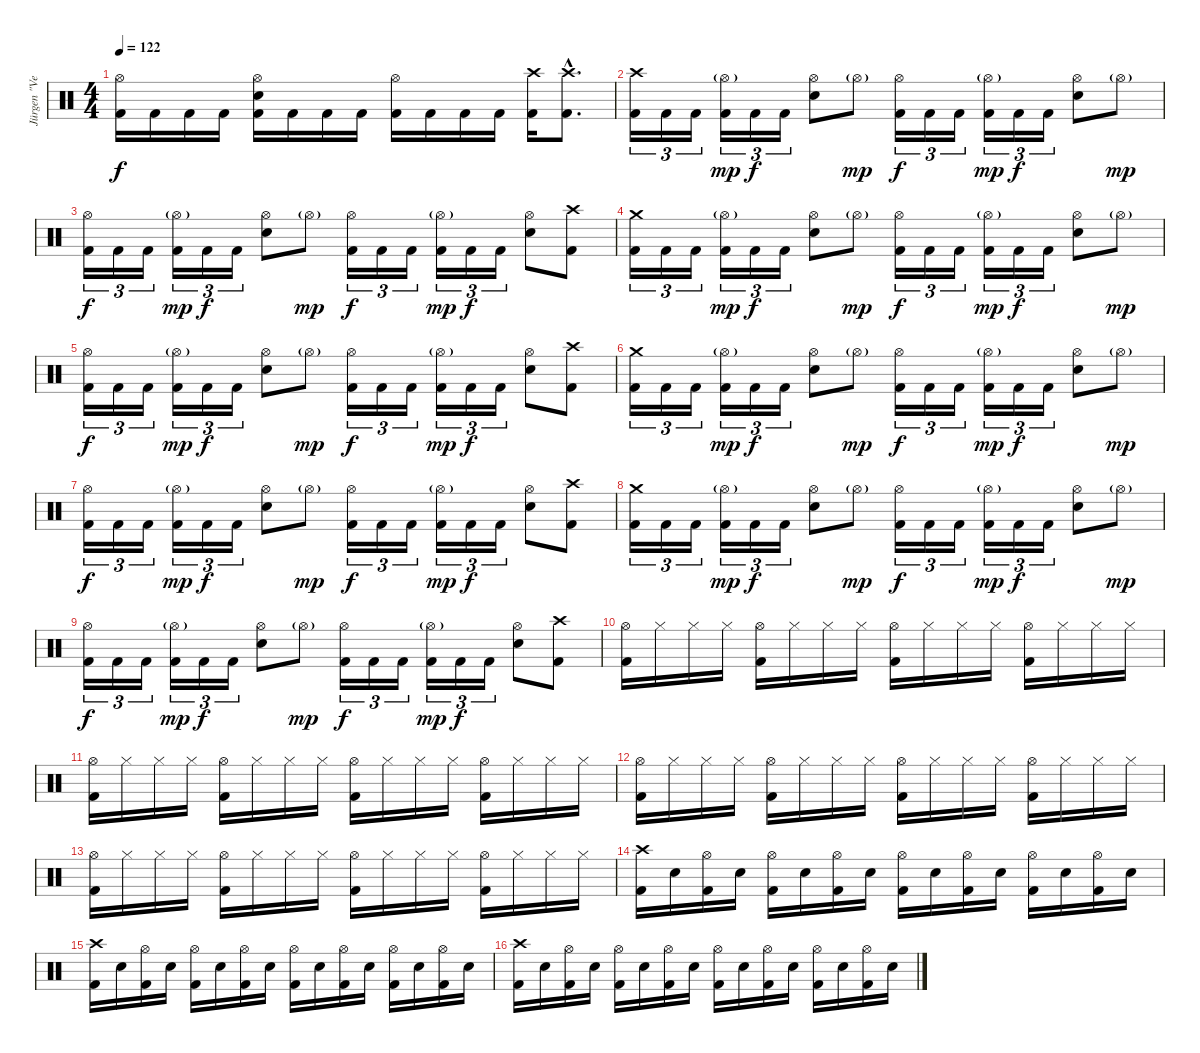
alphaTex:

\track ("Jürgen \"Ventor\" Reil Drums" "Jürgen \"Ve") {instrument percussion}
\staff {score}
\articulation defaults
\ts (4 4)
\tempo 122
\clef neutral
\ks c
("Hi-Hat (open)" "Kick (hit) 2").16{dy f} "Kick (hit) 2".16 "Kick (hit) 2".16 "Kick (hit) 2".16 ("Snare (hit) 2" "Hi-Hat (open)" "Kick (hit) 2").16 "Kick (hit) 2".16 "Kick (hit) 2".16 "Kick (hit) 2".16 ("Hi-Hat (open)" "Kick (hit) 2").16 "Kick (hit) 2".16 "Kick (hit) 2".16 "Kick (hit) 2".16 ("Crash high (hit)" "Kick (hit) 2").16 ("Crash high (hit)"{hac} "Kick (hit) 2"{hac}).8{d} |
("Crash high (hit)" "Kick (hit) 2").16{tu (3 2)} "Kick (hit) 2".16{tu (3 2)} "Kick (hit) 2".16{tu (3 2)} ("Hi-Hat (open)"{g} "Kick (hit) 2").16{tu (3 2) dy mp} "Kick (hit) 2".16{tu (3 2) dy f} "Kick (hit) 2".16{tu (3 2)} ("Hi-Hat (open)" "Snare (hit) 2").8 "Hi-Hat (open)"{g}.8{dy mp} ("Hi-Hat (open)" "Kick (hit) 2").16{tu (3 2) dy f} "Kick (hit) 2".16{tu (3 2)} "Kick (hit) 2".16{tu (3 2)} ("Hi-Hat (open)"{g} "Kick (hit) 2").16{tu (3 2) dy mp} "Kick (hit) 2".16{tu (3 2) dy f} "Kick (hit) 2".16{tu (3 2)} ("Hi-Hat (open)" "Snare (hit) 2").8 "Hi-Hat (open)"{g}.8{dy mp} |
("Hi-Hat (open)" "Kick (hit) 2").16{tu (3 2) dy f} "Kick (hit) 2".16{tu (3 2)} "Kick (hit) 2".16{tu (3 2)} ("Hi-Hat (open)"{g} "Kick (hit) 2").16{tu (3 2) dy mp} "Kick (hit) 2".16{tu (3 2) dy f} "Kick (hit) 2".16{tu (3 2)} ("Hi-Hat (open)" "Snare (hit) 2").8 "Hi-Hat (open)"{g}.8{dy mp} ("Hi-Hat (open)" "Kick (hit) 2").16{tu (3 2) dy f} "Kick (hit) 2".16{tu (3 2)} "Kick (hit) 2".16{tu (3 2)} ("Hi-Hat (open)"{g} "Kick (hit) 2").16{tu (3 2) dy mp} "Kick (hit) 2".16{tu (3 2) dy f} "Kick (hit) 2".16{tu (3 2)} ("Hi-Hat (open)" "Snare (hit) 2").8 ("Kick (hit) 2" "Crash high (hit)").8 |
("Crash medium (hit)" "Kick (hit) 2").16{tu (3 2)} "Kick (hit) 2".16{tu (3 2)} "Kick (hit) 2".16{tu (3 2)} ("Hi-Hat (open)"{g} "Kick (hit) 2").16{tu (3 2) dy mp} "Kick (hit) 2".16{tu (3 2) dy f} "Kick (hit) 2".16{tu (3 2)} ("Hi-Hat (open)" "Snare (hit) 2").8 "Hi-Hat (open)"{g}.8{dy mp} ("Hi-Hat (open)" "Kick (hit) 2").16{tu (3 2) dy f} "Kick (hit) 2".16{tu (3 2)} "Kick (hit) 2".16{tu (3 2)} ("Hi-Hat (open)"{g} "Kick (hit) 2").16{tu (3 2) dy mp} "Kick (hit) 2".16{tu (3 2) dy f} "Kick (hit) 2".16{tu (3 2)} ("Hi-Hat (open)" "Snare (hit) 2").8 "Hi-Hat (open)"{g}.8{dy mp} |
("Hi-Hat (open)" "Kick (hit) 2").16{tu (3 2) dy f} "Kick (hit) 2".16{tu (3 2)} "Kick (hit) 2".16{tu (3 2)} ("Hi-Hat (open)"{g} "Kick (hit) 2").16{tu (3 2) dy mp} "Kick (hit) 2".16{tu (3 2) dy f} "Kick (hit) 2".16{tu (3 2)} ("Hi-Hat (open)" "Snare (hit) 2").8 "Hi-Hat (open)"{g}.8{dy mp} ("Hi-Hat (open)" "Kick (hit) 2").16{tu (3 2) dy f} "Kick (hit) 2".16{tu (3 2)} "Kick (hit) 2".16{tu (3 2)} ("Hi-Hat (open)"{g} "Kick (hit) 2").16{tu (3 2) dy mp} "Kick (hit) 2".16{tu (3 2) dy f} "Kick (hit) 2".16{tu (3 2)} ("Hi-Hat (open)" "Snare (hit) 2").8 ("Kick (hit) 2" "Crash high (hit)").8 |
("Crash medium (hit)" "Kick (hit) 2").16{tu (3 2)} "Kick (hit) 2".16{tu (3 2)} "Kick (hit) 2".16{tu (3 2)} ("Hi-Hat (open)"{g} "Kick (hit) 2").16{tu (3 2) dy mp} "Kick (hit) 2".16{tu (3 2) dy f} "Kick (hit) 2".16{tu (3 2)} ("Hi-Hat (open)" "Snare (hit) 2").8 "Hi-Hat (open)"{g}.8{dy mp} ("Hi-Hat (open)" "Kick (hit) 2").16{tu (3 2) dy f} "Kick (hit) 2".16{tu (3 2)} "Kick (hit) 2".16{tu (3 2)} ("Hi-Hat (open)"{g} "Kick (hit) 2").16{tu (3 2) dy mp} "Kick (hit) 2".16{tu (3 2) dy f} "Kick (hit) 2".16{tu (3 2)} ("Hi-Hat (open)" "Snare (hit) 2").8 "Hi-Hat (open)"{g}.8{dy mp} |
("Hi-Hat (open)" "Kick (hit) 2").16{tu (3 2) dy f} "Kick (hit) 2".16{tu (3 2)} "Kick (hit) 2".16{tu (3 2)} ("Hi-Hat (open)"{g} "Kick (hit) 2").16{tu (3 2) dy mp} "Kick (hit) 2".16{tu (3 2) dy f} "Kick (hit) 2".16{tu (3 2)} ("Hi-Hat (open)" "Snare (hit) 2").8 "Hi-Hat (open)"{g}.8{dy mp} ("Hi-Hat (open)" "Kick (hit) 2").16{tu (3 2) dy f} "Kick (hit) 2".16{tu (3 2)} "Kick (hit) 2".16{tu (3 2)} ("Hi-Hat (open)"{g} "Kick (hit) 2").16{tu (3 2) dy mp} "Kick (hit) 2".16{tu (3 2) dy f} "Kick (hit) 2".16{tu (3 2)} ("Hi-Hat (open)" "Snare (hit) 2").8 ("Kick (hit) 2" "Crash high (hit)").8 |
("Crash medium (hit)" "Kick (hit) 2").16{tu (3 2)} "Kick (hit) 2".16{tu (3 2)} "Kick (hit) 2".16{tu (3 2)} ("Hi-Hat (open)"{g} "Kick (hit) 2").16{tu (3 2) dy mp} "Kick (hit) 2".16{tu (3 2) dy f} "Kick (hit) 2".16{tu (3 2)} ("Hi-Hat (open)" "Snare (hit) 2").8 "Hi-Hat (open)"{g}.8{dy mp} ("Hi-Hat (open)" "Kick (hit) 2").16{tu (3 2) dy f} "Kick (hit) 2".16{tu (3 2)} "Kick (hit) 2".16{tu (3 2)} ("Hi-Hat (open)"{g} "Kick (hit) 2").16{tu (3 2) dy mp} "Kick (hit) 2".16{tu (3 2) dy f} "Kick (hit) 2".16{tu (3 2)} ("Hi-Hat (open)" "Snare (hit) 2").8 "Hi-Hat (open)"{g}.8{dy mp} |
("Hi-Hat (open)" "Kick (hit) 2").16{tu (3 2) dy f} "Kick (hit) 2".16{tu (3 2)} "Kick (hit) 2".16{tu (3 2)} ("Hi-Hat (open)"{g} "Kick (hit) 2").16{tu (3 2) dy mp} "Kick (hit) 2".16{tu (3 2) dy f} "Kick (hit) 2".16{tu (3 2)} ("Hi-Hat (open)" "Snare (hit) 2").8 "Hi-Hat (open)"{g}.8{dy mp} ("Hi-Hat (open)" "Kick (hit) 2").16{tu (3 2) dy f} "Kick (hit) 2".16{tu (3 2)} "Kick (hit) 2".16{tu (3 2)} ("Hi-Hat (open)"{g} "Kick (hit) 2").16{tu (3 2) dy mp} "Kick (hit) 2".16{tu (3 2) dy f} "Kick (hit) 2".16{tu (3 2)} ("Hi-Hat (open)" "Snare (hit) 2").8 ("Kick (hit) 2" "Crash high (hit)").8 |
("Hi-Hat (open)" "Kick (hit) 2").16 "Hi-Hat (closed)".16 "Hi-Hat (closed)".16 "Hi-Hat (closed)".16 ("Hi-Hat (open)" "Kick (hit) 2").16 "Hi-Hat (closed)".16 "Hi-Hat (closed)".16 "Hi-Hat (closed)".16 ("Hi-Hat (open)" "Kick (hit) 2").16 "Hi-Hat (closed)".16 "Hi-Hat (closed)".16 "Hi-Hat (closed)".16 ("Hi-Hat (open)" "Kick (hit) 2").16 "Hi-Hat (closed)".16 "Hi-Hat (closed)".16 "Hi-Hat (closed)".16 |
("Hi-Hat (open)" "Kick (hit) 2").16 "Hi-Hat (closed)".16 "Hi-Hat (closed)".16 "Hi-Hat (closed)".16 ("Hi-Hat (open)" "Kick (hit) 2").16 "Hi-Hat (closed)".16 "Hi-Hat (closed)".16 "Hi-Hat (closed)".16 ("Hi-Hat (open)" "Kick (hit) 2").16 "Hi-Hat (closed)".16 "Hi-Hat (closed)".16 "Hi-Hat (closed)".16 ("Hi-Hat (open)" "Kick (hit) 2").16 "Hi-Hat (closed)".16 "Hi-Hat (closed)".16 "Hi-Hat (closed)".16 |
("Hi-Hat (open)" "Kick (hit) 2").16 "Hi-Hat (closed)".16 "Hi-Hat (closed)".16 "Hi-Hat (closed)".16 ("Hi-Hat (open)" "Kick (hit) 2").16 "Hi-Hat (closed)".16 "Hi-Hat (closed)".16 "Hi-Hat (closed)".16 ("Hi-Hat (open)" "Kick (hit) 2").16 "Hi-Hat (closed)".16 "Hi-Hat (closed)".16 "Hi-Hat (closed)".16 ("Hi-Hat (open)" "Kick (hit) 2").16 "Hi-Hat (closed)".16 "Hi-Hat (closed)".16 "Hi-Hat (closed)".16 |
("Hi-Hat (open)" "Kick (hit) 2").16 "Hi-Hat (closed)".16 "Hi-Hat (closed)".16 "Hi-Hat (closed)".16 ("Hi-Hat (open)" "Kick (hit) 2").16 "Hi-Hat (closed)".16 "Hi-Hat (closed)".16 "Hi-Hat (closed)".16 ("Hi-Hat (open)" "Kick (hit) 2").16 "Hi-Hat (closed)".16 "Hi-Hat (closed)".16 "Hi-Hat (closed)".16 ("Hi-Hat (open)" "Kick (hit) 2").16 "Hi-Hat (closed)".16 "Hi-Hat (closed)".16 "Hi-Hat (closed)".16 |
("Crash high (hit)" "Kick (hit) 2").16 "Snare (hit) 2".16 ("Hi-Hat (open)" "Kick (hit) 2").16 "Snare (hit) 2".16 ("Hi-Hat (open)" "Kick (hit) 2").16 "Snare (hit) 2".16 ("Hi-Hat (open)" "Kick (hit) 2").16 "Snare (hit) 2".16 ("Hi-Hat (open)" "Kick (hit) 2").16 "Snare (hit) 2".16 ("Hi-Hat (open)" "Kick (hit) 2").16 "Snare (hit) 2".16 ("Hi-Hat (open)" "Kick (hit) 2").16 "Snare (hit) 2".16 ("Hi-Hat (open)" "Kick (hit) 2").16 "Snare (hit) 2".16 |
("Crash high (hit)" "Kick (hit) 2").16 "Snare (hit) 2".16 ("Hi-Hat (open)" "Kick (hit) 2").16 "Snare (hit) 2".16 ("Hi-Hat (open)" "Kick (hit) 2").16 "Snare (hit) 2".16 ("Hi-Hat (open)" "Kick (hit) 2").16 "Snare (hit) 2".16 ("Hi-Hat (open)" "Kick (hit) 2").16 "Snare (hit) 2".16 ("Hi-Hat (open)" "Kick (hit) 2").16 "Snare (hit) 2".16 ("Hi-Hat (open)" "Kick (hit) 2").16 "Snare (hit) 2".16 ("Hi-Hat (open)" "Kick (hit) 2").16 "Snare (hit) 2".16 |
("Crash high (hit)" "Kick (hit) 2").16 "Snare (hit) 2".16 ("Hi-Hat (open)" "Kick (hit) 2").16 "Snare (hit) 2".16 ("Hi-Hat (open)" "Kick (hit) 2").16 "Snare (hit) 2".16 ("Hi-Hat (open)" "Kick (hit) 2").16 "Snare (hit) 2".16 ("Hi-Hat (open)" "Kick (hit) 2").16 "Snare (hit) 2".16 ("Hi-Hat (open)" "Kick (hit) 2").16 "Snare (hit) 2".16 ("Hi-Hat (open)" "Kick (hit) 2").16 "Snare (hit) 2".16 ("Hi-Hat (open)" "Kick (hit) 2").16 "Snare (hit) 2".16
